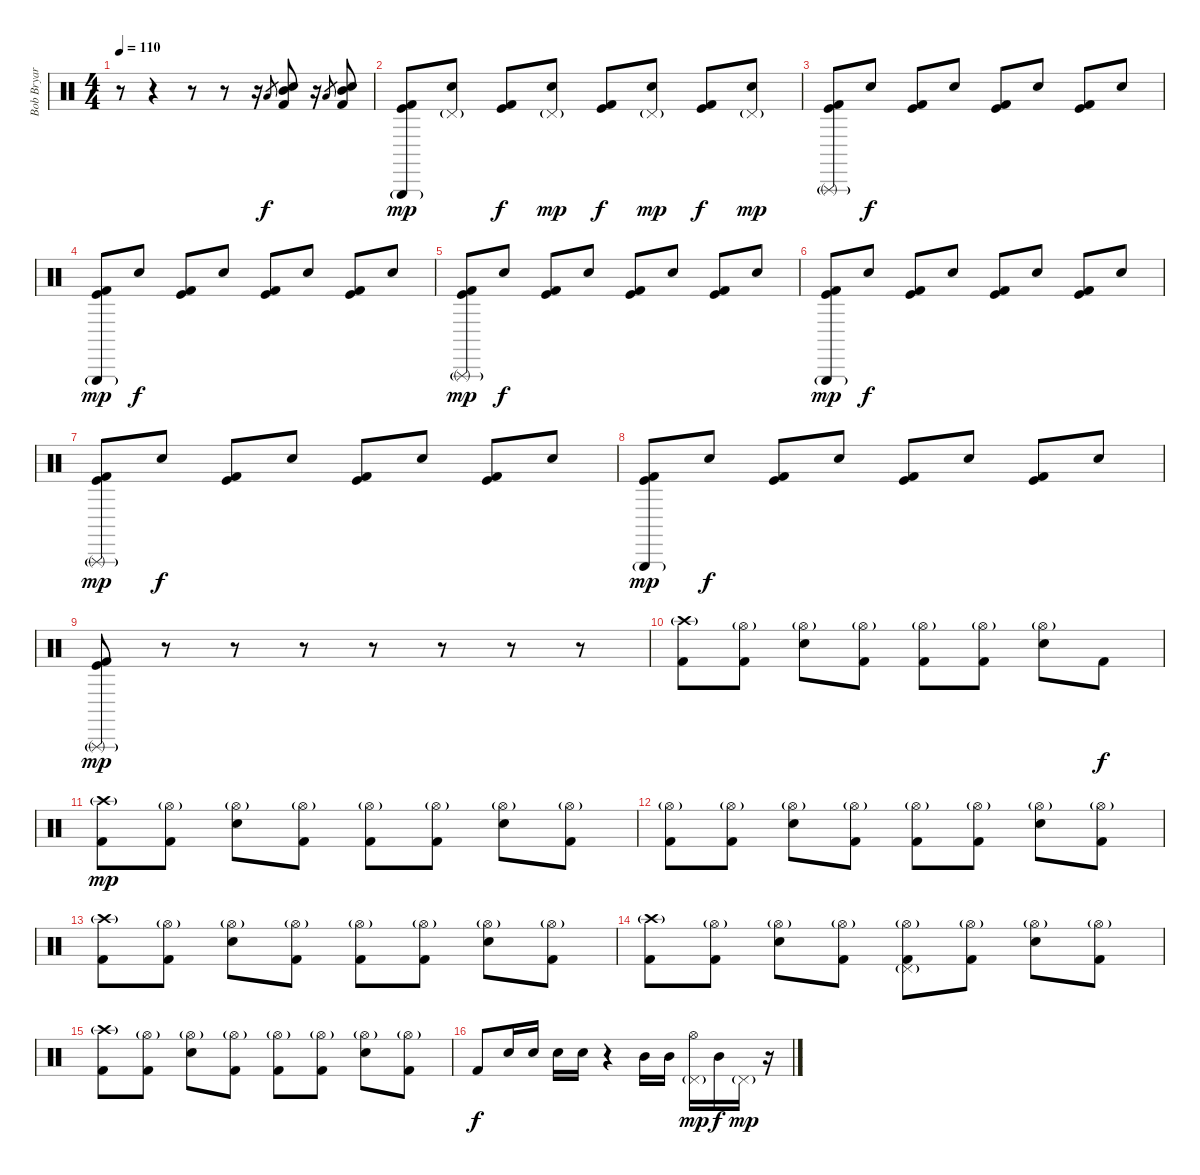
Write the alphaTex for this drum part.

\track ("Bob Bryar [Drums]" "Bob Bryar ") {instrument percussion}
\staff {score}
\articulation defaults
\ts (4 4)
\tempo 110
\clef neutral
\ks c
r.8{dy f} r.4 r.8 r.8 r.16 "Low Tom (hit)".8{gr} ("Mid Tom (hit)" "Electric Snare (hit)" "Kick (hit) 2").8 r.16 "Low Tom (hit)".8{gr} ("Mid Tom (hit)" "Electric Snare (hit)" "Kick (hit) 2").8 |
("Triangle (hit)"{g} "Kick (hit)" "Kick (hit) 2").8{dy mp} ("Pedal Hi-Hat (hit)"{g} "Electric Snare (hit)").8 ("Kick (hit)" "Kick (hit) 2").8{dy f} ("Pedal Hi-Hat (hit)"{g} "Electric Snare (hit)").8{dy mp} ("Kick (hit)" "Kick (hit) 2").8{dy f} ("Pedal Hi-Hat (hit)"{g} "Electric Snare (hit)").8{dy mp} ("Kick (hit)" "Kick (hit) 2").8{dy f} ("Pedal Hi-Hat (hit)"{g} "Electric Snare (hit)").8{dy mp} |
("Triangle (rnute)"{g} "Kick (hit)" "Kick (hit) 2").8 "Electric Snare (hit)".8{dy f} ("Kick (hit)" "Kick (hit) 2").8 "Electric Snare (hit)".8 ("Kick (hit)" "Kick (hit) 2").8 "Electric Snare (hit)".8 ("Kick (hit)" "Kick (hit) 2").8 "Electric Snare (hit)".8 |
("Triangle (hit)"{g} "Kick (hit)" "Kick (hit) 2").8{dy mp} "Electric Snare (hit)".8{dy f} ("Kick (hit)" "Kick (hit) 2").8 "Electric Snare (hit)".8 ("Kick (hit)" "Kick (hit) 2").8 "Electric Snare (hit)".8 ("Kick (hit)" "Kick (hit) 2").8 "Electric Snare (hit)".8 |
("Triangle (rnute)"{g} "Kick (hit)" "Kick (hit) 2").8{dy mp} "Electric Snare (hit)".8{dy f} ("Kick (hit)" "Kick (hit) 2").8 "Electric Snare (hit)".8 ("Kick (hit)" "Kick (hit) 2").8 "Electric Snare (hit)".8 ("Kick (hit)" "Kick (hit) 2").8 "Electric Snare (hit)".8 |
("Triangle (hit)"{g} "Kick (hit)" "Kick (hit) 2").8{dy mp} "Electric Snare (hit)".8{dy f} ("Kick (hit)" "Kick (hit) 2").8 "Electric Snare (hit)".8 ("Kick (hit)" "Kick (hit) 2").8 "Electric Snare (hit)".8 ("Kick (hit)" "Kick (hit) 2").8 "Electric Snare (hit)".8 |
("Triangle (rnute)"{g} "Kick (hit)" "Kick (hit) 2").8{dy mp} "Electric Snare (hit)".8{dy f} ("Kick (hit)" "Kick (hit) 2").8 "Electric Snare (hit)".8 ("Kick (hit)" "Kick (hit) 2").8 "Electric Snare (hit)".8 ("Kick (hit)" "Kick (hit) 2").8 "Electric Snare (hit)".8 |
("Triangle (hit)"{g} "Kick (hit)" "Kick (hit) 2").8{dy mp} "Electric Snare (hit)".8{dy f} ("Kick (hit)" "Kick (hit) 2").8 "Electric Snare (hit)".8 ("Kick (hit)" "Kick (hit) 2").8 "Electric Snare (hit)".8 ("Kick (hit)" "Kick (hit) 2").8 "Electric Snare (hit)".8 |
("Triangle (rnute)"{g} "Kick (hit)" "Kick (hit) 2").8{dy mp} r.8 r.8 r.8 r.8 r.8 r.8 r.8 |
("Crash high (hit)"{g} "Kick (hit) 2").8 ("Hi-Hat (open)"{g} "Kick (hit) 2").8 ("Hi-Hat (open)"{g} "Electric Snare (hit)").8 ("Hi-Hat (open)"{g} "Kick (hit) 2").8 ("Hi-Hat (open)"{g} "Kick (hit) 2").8 ("Hi-Hat (open)"{g} "Kick (hit) 2").8 ("Hi-Hat (open)"{g} "Electric Snare (hit)").8 "Kick (hit) 2".8{dy f} |
("Crash high (hit)"{g} "Kick (hit) 2").8{dy mp} ("Hi-Hat (open)"{g} "Kick (hit) 2").8 ("Hi-Hat (open)"{g} "Electric Snare (hit)").8 ("Hi-Hat (open)"{g} "Kick (hit) 2").8 ("Hi-Hat (open)"{g} "Kick (hit) 2").8 ("Hi-Hat (open)"{g} "Kick (hit) 2").8 ("Hi-Hat (open)"{g} "Electric Snare (hit)").8 ("Hi-Hat (open)"{g} "Kick (hit) 2").8 |
("Hi-Hat (open)"{g} "Kick (hit) 2").8 ("Hi-Hat (open)"{g} "Kick (hit) 2").8 ("Hi-Hat (open)"{g} "Electric Snare (hit)").8 ("Hi-Hat (open)"{g} "Kick (hit) 2").8 ("Hi-Hat (open)"{g} "Kick (hit) 2").8 ("Hi-Hat (open)"{g} "Kick (hit) 2").8 ("Hi-Hat (open)"{g} "Electric Snare (hit)").8 ("Hi-Hat (open)"{g} "Kick (hit) 2").8 |
("Crash high (hit)"{g} "Kick (hit) 2").8 ("Hi-Hat (open)"{g} "Kick (hit) 2").8 ("Hi-Hat (open)"{g} "Electric Snare (hit)").8 ("Hi-Hat (open)"{g} "Kick (hit) 2").8 ("Hi-Hat (open)"{g} "Kick (hit) 2").8 ("Hi-Hat (open)"{g} "Kick (hit) 2").8 ("Hi-Hat (open)"{g} "Electric Snare (hit)").8 ("Hi-Hat (open)"{g} "Kick (hit) 2").8 |
("Crash high (hit)"{g} "Kick (hit) 2").8 ("Hi-Hat (open)"{g} "Kick (hit) 2").8 ("Hi-Hat (open)"{g} "Electric Snare (hit)").8 ("Hi-Hat (open)"{g} "Kick (hit) 2").8 ("Hi-Hat (open)"{g} "Pedal Hi-Hat (hit)"{g} "Kick (hit) 2").8 ("Hi-Hat (open)"{g} "Kick (hit) 2").8 ("Hi-Hat (open)"{g} "Electric Snare (hit)").8 ("Hi-Hat (open)"{g} "Kick (hit) 2").8 |
("Crash high (hit)"{g} "Kick (hit) 2").8 ("Hi-Hat (open)"{g} "Kick (hit) 2").8 ("Hi-Hat (open)"{g} "Electric Snare (hit)").8 ("Hi-Hat (open)"{g} "Kick (hit) 2").8 ("Hi-Hat (open)"{g} "Kick (hit) 2").8 ("Hi-Hat (open)"{g} "Kick (hit) 2").8 ("Hi-Hat (open)"{g} "Electric Snare (hit)").8 ("Hi-Hat (open)"{g} "Kick (hit) 2").8 |
"Kick (hit) 2".8{dy f} "Electric Snare (hit)".16 "Electric Snare (hit)".16 "Electric Snare (hit)".16 "Electric Snare (hit)".16 r.4 "Mid Tom (hit)".16 "Mid Tom (hit)".16 ("Pedal Hi-Hat (hit)"{g} "Hi-Hat (open)").16{dy mp} "Mid Tom (hit)".16{dy f} "Pedal Hi-Hat (hit)"{g}.16{dy mp} r.16
